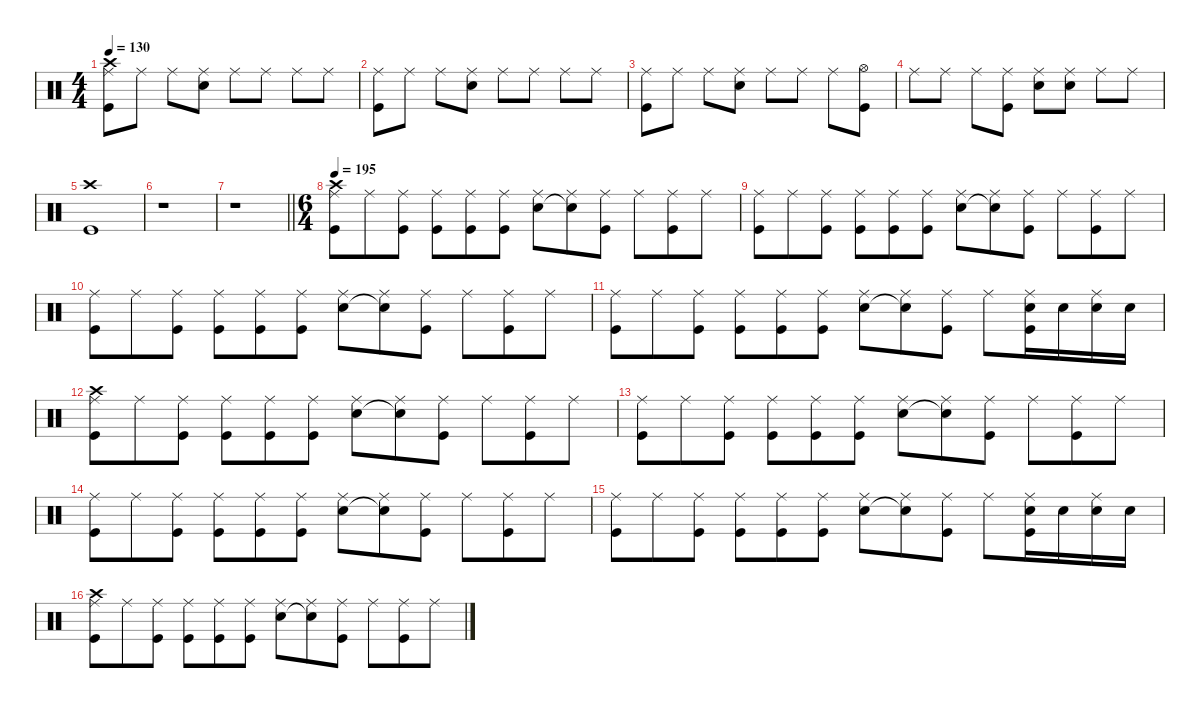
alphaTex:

\defaultSystemsLayout 4
\hideDynamics
\bracketExtendMode nobrackets
\singleTrackTrackNamePolicy hidden
\multiTrackTrackNamePolicy hidden
\firstSystemTrackNameMode fullname
\firstSystemTrackNameOrientation horizontal
\otherSystemsTrackNameOrientation horizontal
\track ("Percussion" "drm.") {defaultSystemsLayout 4 instrument percussion}
\staff {score}
\articulation defaults
\ts (4 4)
\tempo 130
\clef neutral
\ks c
("Crash high (hit)" "Ride (middle)" "Kick (hit)").8{dy f beam Down} "Ride (middle)".8{beam Down} "Ride (middle)".8{beam Down} ("Ride (middle)" "Snare (hit) 2").8{beam Down} "Ride (middle)".8{beam Down} "Ride (middle)".8{beam Down} "Ride (middle)".8{beam Down} "Ride (middle)".8{beam Down} |
("Ride (middle)" "Kick (hit)").8{beam Down} "Ride (middle)".8{beam Down} "Ride (middle)".8{beam Down} ("Ride (middle)" "Snare (hit) 2").8{beam Down} "Ride (middle)".8{beam Down} "Ride (middle)".8{beam Down} "Ride (middle)".8{beam Down} "Ride (middle)".8{beam Down} |
("Ride (middle)" "Kick (hit)").8{beam Down} "Ride (middle)".8{beam Down} "Ride (middle)".8{beam Down} ("Ride (middle)" "Snare (hit) 2").8{beam Down} "Ride (middle)".8{beam Down} "Ride (middle)".8{beam Down} "Ride (middle)".8{beam Down} ("Kick (hit)" "Hi-Hat (open)").8{beam Down} |
"Ride (middle)".8{dy mf beam Down} "Ride (middle)".8{dy f beam Down} "Ride (middle)".8{beam Down} ("Ride (middle)" "Kick (hit)").8{beam Down} ("Ride (middle)" "Snare (hit) 2").8{beam Down} ("Ride (middle)" "Snare (hit) 2").8{beam Down} "Ride (middle)".8{beam Down} "Ride (middle)".8{beam Down} |
("Crash high (hit)" "Kick (hit)").1{beam Down} |
r.1{beam Down} |
\barLineRight lightlight
r.1{beam Down} |
\ts (6 4)
\beaming (8 3 3 3 3)
\tempo 195
("Crash high (hit)" "Ride (middle)" "Kick (hit)").8{beam Down} "Ride (middle)".8{beam Down} ("Ride (middle)" "Kick (hit)").8{beam Down} ("Ride (middle)" "Kick (hit)").8{beam Down} ("Ride (middle)" "Kick (hit)").8{beam Down} ("Ride (middle)" "Kick (hit)").8{beam Down} ("Ride (middle)" "Snare (hit) 2").8{beam Down} ("Ride (middle)" "Snare (hit) 2"{t}).8{beam Down} ("Ride (middle)" "Kick (hit)").8{beam Down} "Ride (middle)".8{beam Down} ("Ride (middle)" "Kick (hit)").8{beam Down} "Ride (middle)".8{beam Down} |
("Ride (middle)" "Kick (hit)").8{beam Down} "Ride (middle)".8{beam Down} ("Ride (middle)" "Kick (hit)").8{beam Down} ("Ride (middle)" "Kick (hit)").8{beam Down} ("Ride (middle)" "Kick (hit)").8{beam Down} ("Ride (middle)" "Kick (hit)").8{beam Down} ("Ride (middle)" "Snare (hit) 2").8{beam Down} ("Ride (middle)" "Snare (hit) 2"{t}).8{beam Down} ("Ride (middle)" "Kick (hit)").8{beam Down} "Ride (middle)".8{beam Down} ("Ride (middle)" "Kick (hit)").8{beam Down} "Ride (middle)".8{beam Down} |
("Ride (middle)" "Kick (hit)").8{beam Down} "Ride (middle)".8{beam Down} ("Ride (middle)" "Kick (hit)").8{beam Down} ("Ride (middle)" "Kick (hit)").8{beam Down} ("Ride (middle)" "Kick (hit)").8{beam Down} ("Ride (middle)" "Kick (hit)").8{beam Down} ("Ride (middle)" "Snare (hit) 2").8{beam Down} ("Ride (middle)" "Snare (hit) 2"{t}).8{beam Down} ("Ride (middle)" "Kick (hit)").8{beam Down} "Ride (middle)".8{beam Down} ("Ride (middle)" "Kick (hit)").8{beam Down} "Ride (middle)".8{beam Down} |
("Ride (middle)" "Kick (hit)").8{beam Down} "Ride (middle)".8{beam Down} ("Ride (middle)" "Kick (hit)").8{beam Down} ("Ride (middle)" "Kick (hit)").8{beam Down} ("Ride (middle)" "Kick (hit)").8{beam Down} ("Ride (middle)" "Kick (hit)").8{beam Down} ("Ride (middle)" "Snare (hit) 2").8{beam Down} ("Ride (middle)" "Snare (hit) 2"{t}).8{beam Down} ("Ride (middle)" "Kick (hit)").8{beam Down} "Ride (middle)".8{beam Down} ("Ride (middle)" "Snare (hit) 2" "Kick (hit)").16{beam Down} "Snare (hit) 2".16{beam Down} ("Ride (middle)" "Snare (hit) 2").16{beam Down} "Snare (hit) 2".16{beam Down} |
("Crash high (hit)" "Ride (middle)" "Kick (hit)").8{beam Down} "Ride (middle)".8{beam Down} ("Ride (middle)" "Kick (hit)").8{beam Down} ("Ride (middle)" "Kick (hit)").8{beam Down} ("Ride (middle)" "Kick (hit)").8{beam Down} ("Ride (middle)" "Kick (hit)").8{beam Down} ("Ride (middle)" "Snare (hit) 2").8{beam Down} ("Ride (middle)" "Snare (hit) 2"{t}).8{beam Down} ("Ride (middle)" "Kick (hit)").8{beam Down} "Ride (middle)".8{beam Down} ("Ride (middle)" "Kick (hit)").8{beam Down} "Ride (middle)".8{beam Down} |
("Ride (middle)" "Kick (hit)").8{beam Down} "Ride (middle)".8{beam Down} ("Ride (middle)" "Kick (hit)").8{beam Down} ("Ride (middle)" "Kick (hit)").8{beam Down} ("Ride (middle)" "Kick (hit)").8{beam Down} ("Ride (middle)" "Kick (hit)").8{beam Down} ("Ride (middle)" "Snare (hit) 2").8{beam Down} ("Ride (middle)" "Snare (hit) 2"{t}).8{beam Down} ("Ride (middle)" "Kick (hit)").8{beam Down} "Ride (middle)".8{beam Down} ("Ride (middle)" "Kick (hit)").8{beam Down} "Ride (middle)".8{beam Down} |
("Ride (middle)" "Kick (hit)").8{beam Down} "Ride (middle)".8{beam Down} ("Ride (middle)" "Kick (hit)").8{beam Down} ("Ride (middle)" "Kick (hit)").8{beam Down} ("Ride (middle)" "Kick (hit)").8{beam Down} ("Ride (middle)" "Kick (hit)").8{beam Down} ("Ride (middle)" "Snare (hit) 2").8{beam Down} ("Ride (middle)" "Snare (hit) 2"{t}).8{beam Down} ("Ride (middle)" "Kick (hit)").8{beam Down} "Ride (middle)".8{beam Down} ("Ride (middle)" "Kick (hit)").8{beam Down} "Ride (middle)".8{beam Down} |
("Ride (middle)" "Kick (hit)").8{beam Down} "Ride (middle)".8{beam Down} ("Ride (middle)" "Kick (hit)").8{beam Down} ("Ride (middle)" "Kick (hit)").8{beam Down} ("Ride (middle)" "Kick (hit)").8{beam Down} ("Ride (middle)" "Kick (hit)").8{beam Down} ("Ride (middle)" "Snare (hit) 2").8{beam Down} ("Ride (middle)" "Snare (hit) 2"{t}).8{beam Down} ("Ride (middle)" "Kick (hit)").8{beam Down} "Ride (middle)".8{beam Down} ("Ride (middle)" "Snare (hit) 2" "Kick (hit)").16{beam Down} "Snare (hit) 2".16{beam Down} ("Ride (middle)" "Snare (hit) 2").16{beam Down} "Snare (hit) 2".16{beam Down} |
("Crash high (hit)" "Ride (middle)" "Kick (hit)").8{beam Down} "Ride (middle)".8{beam Down} ("Ride (middle)" "Kick (hit)").8{beam Down} ("Ride (middle)" "Kick (hit)").8{beam Down} ("Ride (middle)" "Kick (hit)").8{beam Down} ("Ride (middle)" "Kick (hit)").8{beam Down} ("Ride (middle)" "Snare (hit) 2").8{beam Down} ("Ride (middle)" "Snare (hit) 2"{t}).8{beam Down} ("Ride (middle)" "Kick (hit)").8{beam Down} "Ride (middle)".8{beam Down} ("Ride (middle)" "Kick (hit)").8{beam Down} "Ride (middle)".8{beam Down}
